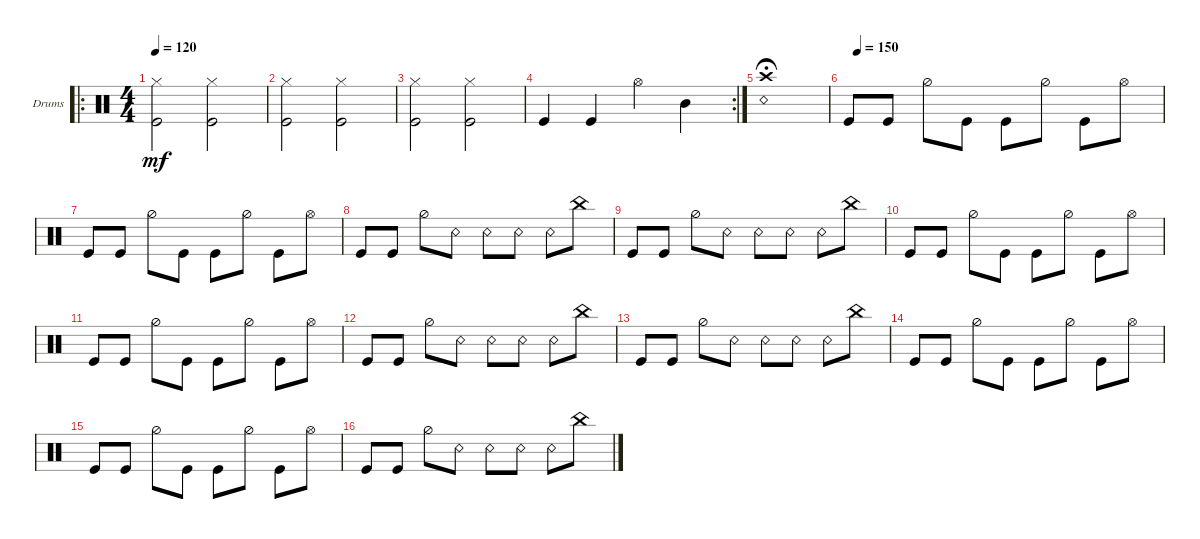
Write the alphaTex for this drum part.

\bracketExtendMode groupsimilarinstruments
\firstSystemTrackNameOrientation horizontal
\otherSystemsTrackNameOrientation horizontal
\track ("Drumkit" "Drums") {instrument percussion}
\staff {score}
\articulation defaults
\ro
\ts (4 4)
\tempo 120
\clef neutral
\ks c
("Kick (hit)" "Hi-Hat (closed)").2{dy mf} ("Hi-Hat (closed)" "Kick (hit)").2 |
("Kick (hit)" "Hi-Hat (closed)").2 ("Hi-Hat (closed)" "Kick (hit)").2 |
("Kick (hit)" "Hi-Hat (closed)").2 ("Hi-Hat (closed)" "Kick (hit)").2 |
\rc 2 "Kick (hit)".4 "Kick (hit)".4 "Hi-Hat (open)".4 "Mid Tom (hit)".4
|
("Crash high (hit)" "Snare (rim shot)").1{fermata (medium 0.5)} |
\tempo (150 0.03125)
"Kick (hit)".8 "Kick (hit)".8 "Hi-Hat (half)".8 "Kick (hit)".8 "Kick (hit)".8 "Hi-Hat (half)".8 "Kick (hit)".8 "Hi-Hat (open)".8 |
"Kick (hit)".8 "Kick (hit)".8 "Hi-Hat (half)".8 "Kick (hit)".8 "Kick (hit)".8 "Hi-Hat (half)".8 "Kick (hit)".8 "Hi-Hat (open)".8 |
"Kick (hit)".8 "Kick (hit)".8 "Hi-Hat (half)".8 "Snare (rim shot)".8 "Snare (rim shot)".8 "Snare (rim shot)".8 "Snare (rim shot)".8 "China (hit)".8 |
"Kick (hit)".8 "Kick (hit)".8 "Hi-Hat (half)".8 "Snare (rim shot)".8 "Snare (rim shot)".8 "Snare (rim shot)".8 "Snare (rim shot)".8 "China (hit)".8 |
"Kick (hit)".8 "Kick (hit)".8 "Hi-Hat (half)".8 "Kick (hit)".8 "Kick (hit)".8 "Hi-Hat (half)".8 "Kick (hit)".8 "Hi-Hat (open)".8 |
"Kick (hit)".8 "Kick (hit)".8 "Hi-Hat (half)".8 "Kick (hit)".8 "Kick (hit)".8 "Hi-Hat (half)".8 "Kick (hit)".8 "Hi-Hat (open)".8 |
"Kick (hit)".8 "Kick (hit)".8 "Hi-Hat (half)".8 "Snare (rim shot)".8 "Snare (rim shot)".8 "Snare (rim shot)".8 "Snare (rim shot)".8 "China (hit)".8 |
"Kick (hit)".8 "Kick (hit)".8 "Hi-Hat (half)".8 "Snare (rim shot)".8 "Snare (rim shot)".8 "Snare (rim shot)".8 "Snare (rim shot)".8 "China (hit)".8 |
"Kick (hit)".8 "Kick (hit)".8 "Hi-Hat (half)".8 "Kick (hit)".8 "Kick (hit)".8 "Hi-Hat (half)".8 "Kick (hit)".8 "Hi-Hat (open)".8 |
"Kick (hit)".8 "Kick (hit)".8 "Hi-Hat (half)".8 "Kick (hit)".8 "Kick (hit)".8 "Hi-Hat (half)".8 "Kick (hit)".8 "Hi-Hat (open)".8 |
"Kick (hit)".8 "Kick (hit)".8 "Hi-Hat (half)".8 "Snare (rim shot)".8 "Snare (rim shot)".8 "Snare (rim shot)".8 "Snare (rim shot)".8 "China (hit)".8
